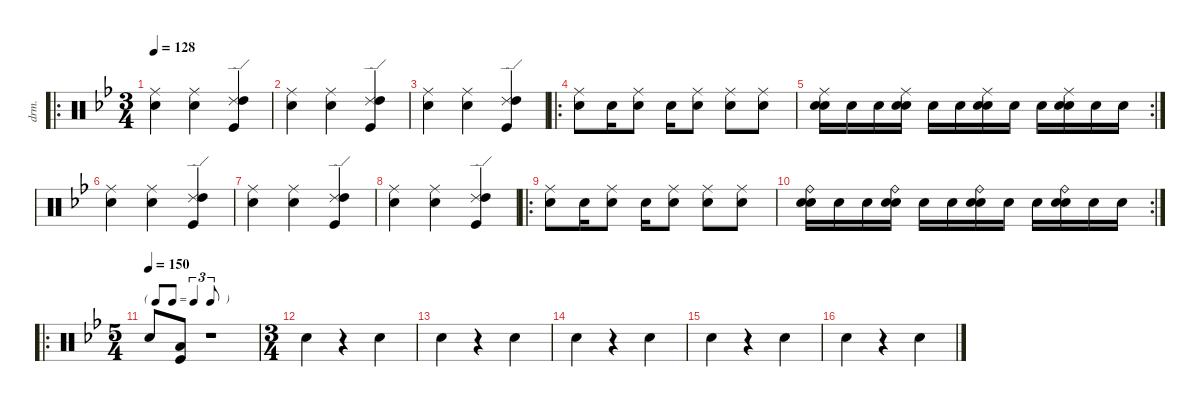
\defaultSystemsLayout 4
\hideDynamics
\bracketExtendMode nobrackets
\otherSystemsTrackNameOrientation horizontal
\track ("Drums" "drm.") {defaultSystemsLayout 4 instrument percussion}
\staff {score}
\articulation defaults
\ro
\ts (3 4)
\beaming (8 2 2 2)
\tempo 128
\clef neutral
\ks gminor
("Ride (middle)"{acc forcenatural} "Snare (hit) 2"{acc forcenatural}).4{dy mp beam Down} ("Ride (middle)"{acc forcenatural} "Snare (hit) 2"{acc forcenatural}).4{beam Down} ("Ride (edge) 2"{acc forcenatural} "High Tom (hit)"{acc forcenatural} "Kick (hit)"{acc forcenatural}).4{beam Up} |
("Ride (middle)"{acc forcenatural} "Snare (hit) 2"{acc forcenatural}).4{beam Down} ("Ride (middle)"{acc forcenatural} "Snare (hit) 2"{acc forcenatural}).4{beam Down} ("Ride (edge) 2"{acc forcenatural} "High Tom (hit)"{acc forcenatural} "Kick (hit)"{acc forcenatural}).4{beam Up} |
("Ride (middle)"{acc forcenatural} "Snare (hit) 2"{acc forcenatural}).4{beam Down} ("Ride (middle)"{acc forcenatural} "Snare (hit) 2"{acc forcenatural}).4{beam Down} ("Ride (edge) 2"{acc forcenatural} "High Tom (hit)"{acc forcenatural} "Kick (hit)"{acc forcenatural}).4{beam Up} |
\ro
("Ride (middle)"{acc forcenatural} "Snare (hit) 2"{acc forcenatural}).8{beam Down} "Snare (hit) 2"{acc forcenatural}.16{beam Down} ("Ride (middle)"{acc forcenatural} "Snare (hit) 2"{acc forcenatural}).8{beam Down} "Snare (hit) 2"{acc forcenatural}.16{beam Down} ("Ride (middle)"{acc forcenatural} "Snare (hit) 2"{acc forcenatural}).8{beam Down} ("Ride (middle)"{acc forcenatural} "Snare (hit) 2"{acc forcenatural}).8{beam Down} ("Ride (middle)"{acc forcenatural} "Snare (hit) 2"{acc forcenatural}).8{beam Down} |
\rc 2
("Ride (middle)"{acc forcenatural} "Snare (hit) 2"{acc forcenatural} "Snare (hit) 2"{acc forcenatural}).16{beam Down} "Snare (hit) 2"{acc forcenatural}.16{beam Down} "Snare (hit) 2"{acc forcenatural}.16{beam Down} ("Ride (middle)"{acc forcenatural} "Snare (hit) 2"{acc forcenatural} "Snare (hit) 2"{acc forcenatural}).16{beam Down} "Snare (hit) 2"{acc forcenatural}.16{beam Down} "Snare (hit) 2"{acc forcenatural}.16{beam Down} ("Ride (middle)"{acc forcenatural} "Snare (hit) 2"{acc forcenatural} "Snare (hit) 2"{acc forcenatural}).16{beam Down} "Snare (hit) 2"{acc forcenatural}.16{beam Down} "Snare (hit) 2"{acc forcenatural}.16{beam Down} ("Ride (middle)"{acc forcenatural} "Snare (hit) 2"{acc forcenatural} "Snare (hit) 2"{acc forcenatural}).16{beam Down} "Snare (hit) 2"{acc forcenatural}.16{beam Down} "Snare (hit) 2"{acc forcenatural}.16{beam Down} |
("Ride (middle)"{acc forcenatural} "Snare (hit) 2"{acc forcenatural}).4{beam Down} ("Ride (middle)"{acc forcenatural} "Snare (hit) 2"{acc forcenatural}).4{beam Down} ("Ride (edge) 2"{acc forcenatural} "High Tom (hit)"{acc forcenatural} "Kick (hit)"{acc forcenatural}).4{beam Up} |
("Ride (middle)"{acc forcenatural} "Snare (hit) 2"{acc forcenatural}).4{beam Down} ("Ride (middle)"{acc forcenatural} "Snare (hit) 2"{acc forcenatural}).4{beam Down} ("Ride (edge) 2"{acc forcenatural} "High Tom (hit)"{acc forcenatural} "Kick (hit)"{acc forcenatural}).4{beam Up} |
("Ride (middle)"{acc forcenatural} "Snare (hit) 2"{acc forcenatural}).4{beam Down} ("Ride (middle)"{acc forcenatural} "Snare (hit) 2"{acc forcenatural}).4{beam Down} ("Ride (edge) 2"{acc forcenatural} "High Tom (hit)"{acc forcenatural} "Kick (hit)"{acc forcenatural}).4{beam Up} |
\ro
("Ride (middle)"{acc forcenatural} "Snare (hit) 2"{acc forcenatural}).8{beam Down} "Snare (hit) 2"{acc forcenatural}.16{beam Down} ("Ride (middle)"{acc forcenatural} "Snare (hit) 2"{acc forcenatural}).8{beam Down} "Snare (hit) 2"{acc forcenatural}.16{beam Down} ("Ride (middle)"{acc forcenatural} "Snare (hit) 2"{acc forcenatural}).8{beam Down} ("Ride (middle)"{acc forcenatural} "Snare (hit) 2"{acc forcenatural}).8{beam Down} ("Ride (middle)"{acc forcenatural} "Snare (hit) 2"{acc forcenatural}).8{beam Down} |
\rc 2
("Ride (bell)"{acc forcenatural} "Snare (hit) 2"{acc forcenatural} "Snare (hit) 2"{acc forcenatural}).16{beam Down} "Snare (hit) 2"{acc forcenatural}.16{beam Down} "Snare (hit) 2"{acc forcenatural}.16{beam Down} ("Ride (bell)"{acc forcenatural} "Snare (hit) 2"{acc forcenatural} "Snare (hit) 2"{acc forcenatural}).16{beam Down} "Snare (hit) 2"{acc forcenatural}.16{beam Down} "Snare (hit) 2"{acc forcenatural}.16{beam Down} ("Ride (bell)"{acc forcenatural} "Snare (hit) 2"{acc forcenatural} "Snare (hit) 2"{acc forcenatural}).16{beam Down} "Snare (hit) 2"{acc forcenatural}.16{beam Down} "Snare (hit) 2"{acc forcenatural}.16{beam Down} ("Ride (bell)"{acc forcenatural} "Snare (hit) 2"{acc forcenatural} "Snare (hit) 2"{acc forcenatural}).16{beam Down} "Snare (hit) 2"{acc forcenatural}.16{beam Down} "Snare (hit) 2"{acc forcenatural}.16{beam Down} |
\ro
\ts (5 4)
\beaming (8 6 4)
\tf triplet8th
\tempo (150)
"Snare (hit) 2"{acc forcenatural}.8{dy f beam Up} ("Low Floor Tom (hit)"{acc forcenatural} "Kick (hit)"{acc forcenatural}).8{beam Up} r.1{beam Down} |
\ts (3 4)
\beaming (8 2 2 2)
"Snare (hit) 2"{acc forcenatural}.4{beam Down} r.4{beam Down} "Snare (hit) 2"{acc forcenatural}.4{beam Down} |
"Snare (hit) 2"{acc forcenatural}.4{beam Down} r.4{beam Down} "Snare (hit) 2"{acc forcenatural}.4{beam Down} |
"Snare (hit) 2"{acc forcenatural}.4{beam Down} r.4{beam Down} "Snare (hit) 2"{acc forcenatural}.4{beam Down} |
"Snare (hit) 2"{acc forcenatural}.4{beam Down} r.4{beam Down} "Snare (hit) 2"{acc forcenatural}.4{beam Down} |
"Snare (hit) 2"{acc forcenatural}.4{beam Down} r.4{beam Down} "Snare (hit) 2"{acc forcenatural}.4{beam Down}
